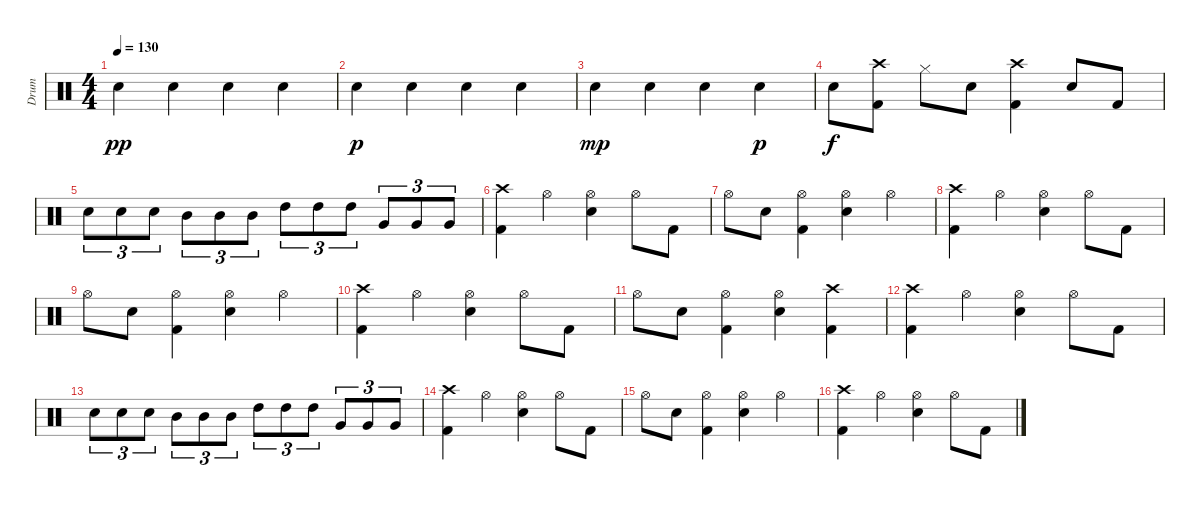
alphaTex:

\track ("Drum" "Drum") {instrument percussion}
\staff {score}
\articulation defaults
\ts (4 4)
\tempo 130
\clef neutral
\ks c "Snare (hit) 2".4{dy pp} "Snare (hit) 2".4 "Snare (hit) 2".4 "Snare (hit) 2".4
|
"Snare (hit) 2".4{dy p} "Snare (hit) 2".4 "Snare (hit) 2".4 "Snare (hit) 2".4 |
"Snare (hit) 2".4{dy mp} "Snare (hit) 2".4 "Snare (hit) 2".4 "Snare (hit) 2".4{dy p} |
"Snare (hit) 2".8{dy f} ("Kick (hit) 2" "Crash high (hit)").8 "Hi-Hat (closed)".8 "Snare (hit) 2".8 ("Kick (hit) 2" "Crash high (hit)").4 "Snare (hit) 2".8 "Kick (hit) 2".8 |
"Snare (hit) 2".8{tu (3 2)} "Snare (hit) 2".8{tu (3 2)} "Snare (hit) 2".8{tu (3 2)} "Mid Tom (hit)".8{tu (3 2)} "Mid Tom (hit)".8{tu (3 2)} "Mid Tom (hit)".8{tu (3 2)} "High Tom (hit)".8{tu (3 2)} "High Tom (hit)".8{tu (3 2)} "High Tom (hit)".8{tu (3 2)} "Very Low Tom (hit)".8{tu (3 2)} "Very Low Tom (hit)".8{tu (3 2)} "Very Low Tom (hit)".8{tu (3 2)} |
("Crash high (hit)" "Kick (hit) 2").4 "Hi-Hat (open)".4 ("Snare (hit) 2" "Hi-Hat (open)").4 "Hi-Hat (open)".8 "Kick (hit) 2".8 |
"Hi-Hat (open)".8 "Snare (hit) 2".8 ("Kick (hit) 2" "Hi-Hat (open)").4 ("Snare (hit) 2" "Hi-Hat (open)").4 "Hi-Hat (open)".4 |
("Crash high (hit)" "Kick (hit) 2").4 "Hi-Hat (open)".4 ("Snare (hit) 2" "Hi-Hat (open)").4 "Hi-Hat (open)".8 "Kick (hit) 2".8 |
"Hi-Hat (open)".8 "Snare (hit) 2".8 ("Kick (hit) 2" "Hi-Hat (open)").4 ("Snare (hit) 2" "Hi-Hat (open)").4 "Hi-Hat (open)".4 |
("Crash high (hit)" "Kick (hit) 2").4 "Hi-Hat (open)".4 ("Snare (hit) 2" "Hi-Hat (open)").4 "Hi-Hat (open)".8 "Kick (hit) 2".8 |
"Hi-Hat (open)".8 "Snare (hit) 2".8 ("Kick (hit) 2" "Hi-Hat (open)").4 ("Snare (hit) 2" "Hi-Hat (open)").4 ("Crash high (hit)" "Kick (hit) 2").4 |
("Crash high (hit)" "Kick (hit) 2").4 "Hi-Hat (open)".4 ("Snare (hit) 2" "Hi-Hat (open)").4 "Hi-Hat (open)".8 "Kick (hit) 2".8 |
"Snare (hit) 2".8{tu (3 2)} "Snare (hit) 2".8{tu (3 2)} "Snare (hit) 2".8{tu (3 2)} "Mid Tom (hit)".8{tu (3 2)} "Mid Tom (hit)".8{tu (3 2)} "Mid Tom (hit)".8{tu (3 2)} "High Tom (hit)".8{tu (3 2)} "High Tom (hit)".8{tu (3 2)} "High Tom (hit)".8{tu (3 2)} "Very Low Tom (hit)".8{tu (3 2)} "Very Low Tom (hit)".8{tu (3 2)} "Very Low Tom (hit)".8{tu (3 2)} |
("Crash high (hit)" "Kick (hit) 2").4 "Hi-Hat (open)".4 ("Snare (hit) 2" "Hi-Hat (open)").4 "Hi-Hat (open)".8 "Kick (hit) 2".8 |
"Hi-Hat (open)".8 "Snare (hit) 2".8 ("Kick (hit) 2" "Hi-Hat (open)").4 ("Snare (hit) 2" "Hi-Hat (open)").4 "Hi-Hat (open)".4 |
("Crash high (hit)" "Kick (hit) 2").4 "Hi-Hat (open)".4 ("Snare (hit) 2" "Hi-Hat (open)").4 "Hi-Hat (open)".8 "Kick (hit) 2".8
